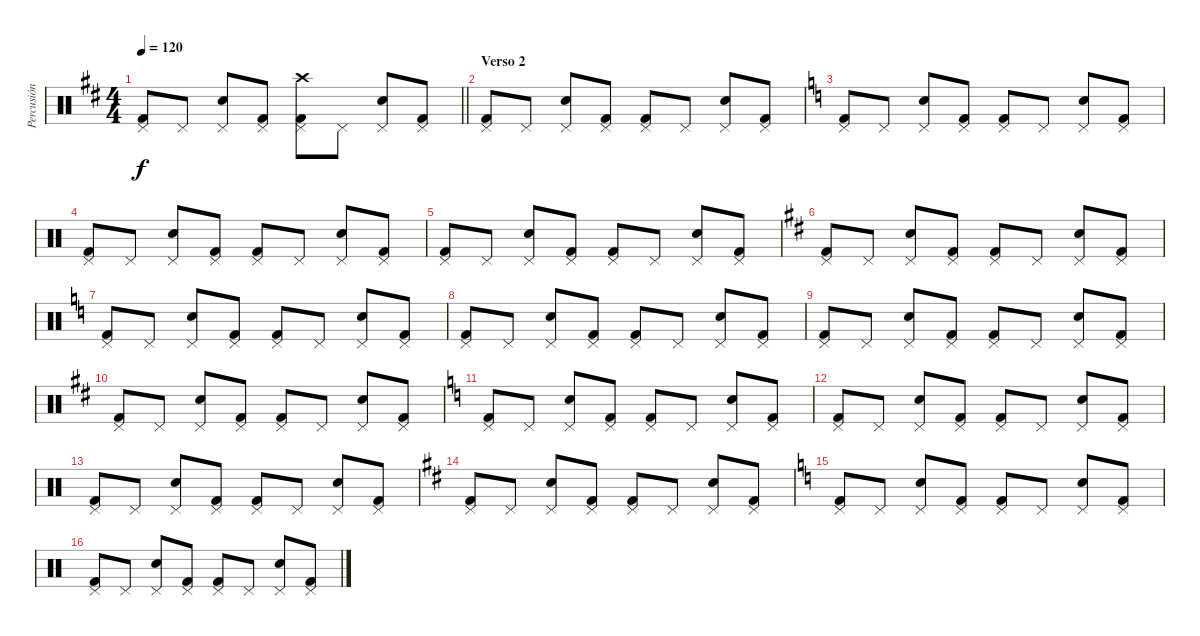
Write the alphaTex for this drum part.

\track ("Percusión" "Percusión") {instrument percussion}
\staff {score}
\articulation defaults
\ts (4 4)
\tempo 120
\clef neutral
\barLineRight lightlight
\ks d
("Pedal Hi-Hat (hit)" "Kick (hit) 2").8{dy f} "Pedal Hi-Hat (hit)".8 ("Pedal Hi-Hat (hit)" "Electric Snare (hit)").8 ("Pedal Hi-Hat (hit)" "Kick (hit) 2").8 ("Pedal Hi-Hat (hit)" "Crash high (hit)" "Kick (hit) 2").8 "Pedal Hi-Hat (hit)".8 ("Pedal Hi-Hat (hit)" "Electric Snare (hit)").8 ("Pedal Hi-Hat (hit)" "Kick (hit) 2").8 |
\section ("" "Verso 2")
("Pedal Hi-Hat (hit)" "Kick (hit) 2").8 "Pedal Hi-Hat (hit)".8 ("Pedal Hi-Hat (hit)" "Electric Snare (hit)").8 ("Pedal Hi-Hat (hit)" "Kick (hit) 2").8 ("Pedal Hi-Hat (hit)" "Kick (hit) 2").8 "Pedal Hi-Hat (hit)".8 ("Pedal Hi-Hat (hit)" "Electric Snare (hit)").8 ("Pedal Hi-Hat (hit)" "Kick (hit) 2").8 |
\ks c
("Pedal Hi-Hat (hit)" "Kick (hit) 2").8 "Pedal Hi-Hat (hit)".8 ("Pedal Hi-Hat (hit)" "Electric Snare (hit)").8 ("Pedal Hi-Hat (hit)" "Kick (hit) 2").8 ("Pedal Hi-Hat (hit)" "Kick (hit) 2").8 "Pedal Hi-Hat (hit)".8 ("Pedal Hi-Hat (hit)" "Electric Snare (hit)").8 ("Pedal Hi-Hat (hit)" "Kick (hit) 2").8 |
("Pedal Hi-Hat (hit)" "Kick (hit) 2").8 "Pedal Hi-Hat (hit)".8 ("Pedal Hi-Hat (hit)" "Electric Snare (hit)").8 ("Pedal Hi-Hat (hit)" "Kick (hit) 2").8 ("Pedal Hi-Hat (hit)" "Kick (hit) 2").8 "Pedal Hi-Hat (hit)".8 ("Pedal Hi-Hat (hit)" "Electric Snare (hit)").8 ("Pedal Hi-Hat (hit)" "Kick (hit) 2").8 |
("Pedal Hi-Hat (hit)" "Kick (hit) 2").8 "Pedal Hi-Hat (hit)".8 ("Pedal Hi-Hat (hit)" "Electric Snare (hit)").8 ("Pedal Hi-Hat (hit)" "Kick (hit) 2").8 ("Pedal Hi-Hat (hit)" "Kick (hit) 2").8 "Pedal Hi-Hat (hit)".8 ("Pedal Hi-Hat (hit)" "Electric Snare (hit)").8 ("Pedal Hi-Hat (hit)" "Kick (hit) 2").8 |
\ks d
("Pedal Hi-Hat (hit)" "Kick (hit) 2").8 "Pedal Hi-Hat (hit)".8 ("Pedal Hi-Hat (hit)" "Electric Snare (hit)").8 ("Pedal Hi-Hat (hit)" "Kick (hit) 2").8 ("Pedal Hi-Hat (hit)" "Kick (hit) 2").8 "Pedal Hi-Hat (hit)".8 ("Pedal Hi-Hat (hit)" "Electric Snare (hit)").8 ("Pedal Hi-Hat (hit)" "Kick (hit) 2").8 |
\ks c
("Pedal Hi-Hat (hit)" "Kick (hit) 2").8 "Pedal Hi-Hat (hit)".8 ("Pedal Hi-Hat (hit)" "Electric Snare (hit)").8 ("Pedal Hi-Hat (hit)" "Kick (hit) 2").8 ("Pedal Hi-Hat (hit)" "Kick (hit) 2").8 "Pedal Hi-Hat (hit)".8 ("Pedal Hi-Hat (hit)" "Electric Snare (hit)").8 ("Pedal Hi-Hat (hit)" "Kick (hit) 2").8 |
("Pedal Hi-Hat (hit)" "Kick (hit) 2").8 "Pedal Hi-Hat (hit)".8 ("Pedal Hi-Hat (hit)" "Electric Snare (hit)").8 ("Pedal Hi-Hat (hit)" "Kick (hit) 2").8 ("Pedal Hi-Hat (hit)" "Kick (hit) 2").8 "Pedal Hi-Hat (hit)".8 ("Pedal Hi-Hat (hit)" "Electric Snare (hit)").8 ("Pedal Hi-Hat (hit)" "Kick (hit) 2").8 |
("Pedal Hi-Hat (hit)" "Kick (hit) 2").8 "Pedal Hi-Hat (hit)".8 ("Pedal Hi-Hat (hit)" "Electric Snare (hit)").8 ("Pedal Hi-Hat (hit)" "Kick (hit) 2").8 ("Pedal Hi-Hat (hit)" "Kick (hit) 2").8 "Pedal Hi-Hat (hit)".8 ("Pedal Hi-Hat (hit)" "Electric Snare (hit)").8 ("Pedal Hi-Hat (hit)" "Kick (hit) 2").8 |
\ks d
("Pedal Hi-Hat (hit)" "Kick (hit) 2").8 "Pedal Hi-Hat (hit)".8 ("Pedal Hi-Hat (hit)" "Electric Snare (hit)").8 ("Pedal Hi-Hat (hit)" "Kick (hit) 2").8 ("Pedal Hi-Hat (hit)" "Kick (hit) 2").8 "Pedal Hi-Hat (hit)".8 ("Pedal Hi-Hat (hit)" "Electric Snare (hit)").8 ("Pedal Hi-Hat (hit)" "Kick (hit) 2").8 |
\ks c
("Pedal Hi-Hat (hit)" "Kick (hit) 2").8 "Pedal Hi-Hat (hit)".8 ("Pedal Hi-Hat (hit)" "Electric Snare (hit)").8 ("Pedal Hi-Hat (hit)" "Kick (hit) 2").8 ("Pedal Hi-Hat (hit)" "Kick (hit) 2").8 "Pedal Hi-Hat (hit)".8 ("Pedal Hi-Hat (hit)" "Electric Snare (hit)").8 ("Pedal Hi-Hat (hit)" "Kick (hit) 2").8 |
("Pedal Hi-Hat (hit)" "Kick (hit) 2").8 "Pedal Hi-Hat (hit)".8 ("Pedal Hi-Hat (hit)" "Electric Snare (hit)").8 ("Pedal Hi-Hat (hit)" "Kick (hit) 2").8 ("Pedal Hi-Hat (hit)" "Kick (hit) 2").8 "Pedal Hi-Hat (hit)".8 ("Pedal Hi-Hat (hit)" "Electric Snare (hit)").8 ("Pedal Hi-Hat (hit)" "Kick (hit) 2").8 |
("Pedal Hi-Hat (hit)" "Kick (hit) 2").8 "Pedal Hi-Hat (hit)".8 ("Pedal Hi-Hat (hit)" "Electric Snare (hit)").8 ("Pedal Hi-Hat (hit)" "Kick (hit) 2").8 ("Pedal Hi-Hat (hit)" "Kick (hit) 2").8 "Pedal Hi-Hat (hit)".8 ("Pedal Hi-Hat (hit)" "Electric Snare (hit)").8 ("Pedal Hi-Hat (hit)" "Kick (hit) 2").8 |
\ks d
("Pedal Hi-Hat (hit)" "Kick (hit) 2").8 "Pedal Hi-Hat (hit)".8 ("Pedal Hi-Hat (hit)" "Electric Snare (hit)").8 ("Pedal Hi-Hat (hit)" "Kick (hit) 2").8 ("Pedal Hi-Hat (hit)" "Kick (hit) 2").8 "Pedal Hi-Hat (hit)".8 ("Pedal Hi-Hat (hit)" "Electric Snare (hit)").8 ("Pedal Hi-Hat (hit)" "Kick (hit) 2").8 |
\ks c
("Pedal Hi-Hat (hit)" "Kick (hit) 2").8 "Pedal Hi-Hat (hit)".8 ("Pedal Hi-Hat (hit)" "Electric Snare (hit)").8 ("Pedal Hi-Hat (hit)" "Kick (hit) 2").8 ("Pedal Hi-Hat (hit)" "Kick (hit) 2").8 "Pedal Hi-Hat (hit)".8 ("Pedal Hi-Hat (hit)" "Electric Snare (hit)").8 ("Pedal Hi-Hat (hit)" "Kick (hit) 2").8 |
("Pedal Hi-Hat (hit)" "Kick (hit) 2").8 "Pedal Hi-Hat (hit)".8 ("Pedal Hi-Hat (hit)" "Electric Snare (hit)").8 ("Pedal Hi-Hat (hit)" "Kick (hit) 2").8 ("Pedal Hi-Hat (hit)" "Kick (hit) 2").8 "Pedal Hi-Hat (hit)".8 ("Pedal Hi-Hat (hit)" "Electric Snare (hit)").8 ("Pedal Hi-Hat (hit)" "Kick (hit) 2").8
